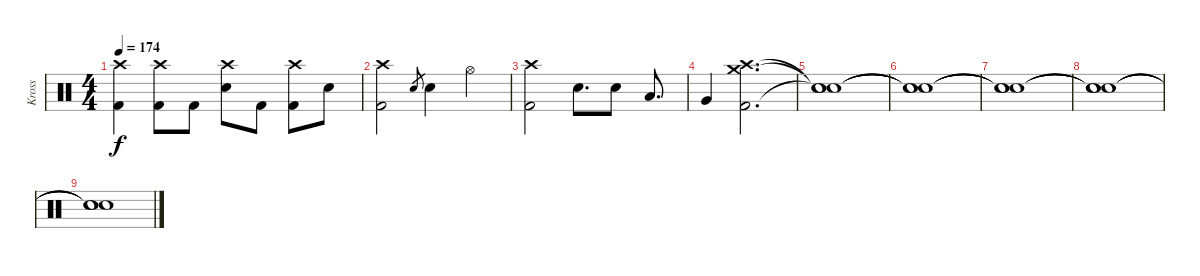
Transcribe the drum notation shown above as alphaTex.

\track ("Kross" "Kross") {instrument percussion}
\staff {score}
\articulation defaults
\ts (4 4)
\tempo 174
\clef neutral
\ks c
("Crash high (hit)" "Kick (hit) 2").4{dy f} ("Crash high (hit)" "Kick (hit) 2").8 "Kick (hit) 2".8 ("Crash high (hit)" "Electric Snare (hit)").8 "Kick (hit) 2".8 ("Crash high (hit)" "Kick (hit) 2").8 "Electric Snare (hit)".8 |
("Crash high (hit)" "Kick (hit) 2").2 "Electric Snare (hit)".8{gr} "Electric Snare (hit)".4 "Hi-Hat (open)".4 |
("Crash high (hit)" "Kick (hit) 2").2 "Electric Snare (hit)".8{d} "Electric Snare (hit)".8 "Low Tom (hit)".8{d} |
"Very Low Tom (hit)".4 ("Crash medium (hit)" "Crash high (hit)" "Kick (hit) 2").2{d} |
("Snare (hit)"{t} "Snare (hit)"{t} "Snare (hit)"{t}).1 |
("Snare (hit)"{t} "Snare (hit)"{t} "Snare (hit)"{t}).1 |
("Snare (hit)"{t} "Snare (hit)"{t} "Snare (hit)"{t}).1 |
("Snare (hit)"{t} "Snare (hit)"{t} "Snare (hit)"{t}).1 |
("Snare (hit)"{t} "Snare (hit)"{t} "Snare (hit)"{t}).1
